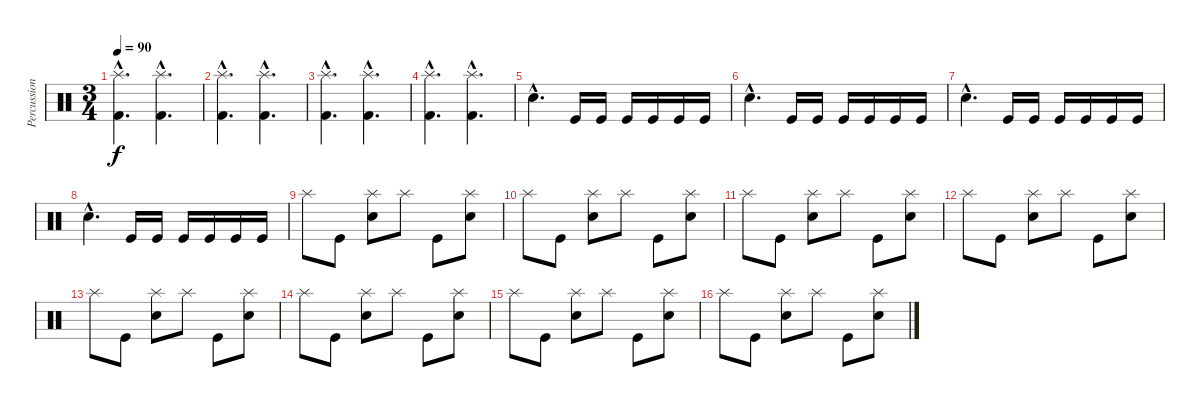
\track ("Percussions" "Percussion") {instrument percussion}
\staff {score}
\articulation defaults
\ts (3 4)
\tempo 90
\clef neutral
\ks c
("Splash (hit)"{hac} "Kick (hit) 2"{hac}).4{d dy f} ("Splash (hit)"{hac} "Kick (hit) 2"{hac}).4{d} |
("Splash (hit)"{hac} "Kick (hit) 2"{hac}).4{d} ("Splash (hit)"{hac} "Kick (hit) 2"{hac}).4{d} |
\section ("" "")
("Splash (hit)"{hac} "Kick (hit) 2"{hac}).4{d} ("Splash (hit)"{hac} "Kick (hit) 2"{hac}).4{d} |
("Splash (hit)"{hac} "Kick (hit) 2"{hac}).4{d} ("Splash (hit)"{hac} "Kick (hit) 2"{hac}).4{d} |
"Electric Snare (hit)"{hac}.4{d} "Kick (hit)".16 "Kick (hit)".16 "Kick (hit)".16 "Kick (hit)".16 "Kick (hit)".16 "Kick (hit)".16 |
"Electric Snare (hit)"{hac}.4{d} "Kick (hit)".16 "Kick (hit)".16 "Kick (hit)".16 "Kick (hit)".16 "Kick (hit)".16 "Kick (hit)".16 |
"Electric Snare (hit)"{hac}.4{d} "Kick (hit)".16 "Kick (hit)".16 "Kick (hit)".16 "Kick (hit)".16 "Kick (hit)".16 "Kick (hit)".16 |
"Electric Snare (hit)"{hac}.4{d} "Kick (hit)".16 "Kick (hit)".16 "Kick (hit)".16 "Kick (hit)".16 "Kick (hit)".16 "Kick (hit)".16 |
"Splash (hit)".8 "Kick (hit)".8 ("Electric Snare (hit)" "Splash (hit)").8 "Splash (hit)".8 "Kick (hit)".8 ("Electric Snare (hit)" "Splash (hit)").8 |
"Splash (hit)".8 "Kick (hit)".8 ("Electric Snare (hit)" "Splash (hit)").8 "Splash (hit)".8 "Kick (hit)".8 ("Electric Snare (hit)" "Splash (hit)").8 |
"Splash (hit)".8 "Kick (hit)".8 ("Electric Snare (hit)" "Splash (hit)").8 "Splash (hit)".8 "Kick (hit)".8 ("Electric Snare (hit)" "Splash (hit)").8 |
"Splash (hit)".8 "Kick (hit)".8 ("Electric Snare (hit)" "Splash (hit)").8 "Splash (hit)".8 "Kick (hit)".8 ("Electric Snare (hit)" "Splash (hit)").8 |
"Splash (hit)".8 "Kick (hit)".8 ("Electric Snare (hit)" "Splash (hit)").8 "Splash (hit)".8 "Kick (hit)".8 ("Electric Snare (hit)" "Splash (hit)").8 |
"Splash (hit)".8 "Kick (hit)".8 ("Electric Snare (hit)" "Splash (hit)").8 "Splash (hit)".8 "Kick (hit)".8 ("Electric Snare (hit)" "Splash (hit)").8 |
"Splash (hit)".8 "Kick (hit)".8 ("Electric Snare (hit)" "Splash (hit)").8 "Splash (hit)".8 "Kick (hit)".8 ("Electric Snare (hit)" "Splash (hit)").8 |
"Splash (hit)".8 "Kick (hit)".8 ("Electric Snare (hit)" "Splash (hit)").8 "Splash (hit)".8 "Kick (hit)".8 ("Electric Snare (hit)" "Splash (hit)").8
